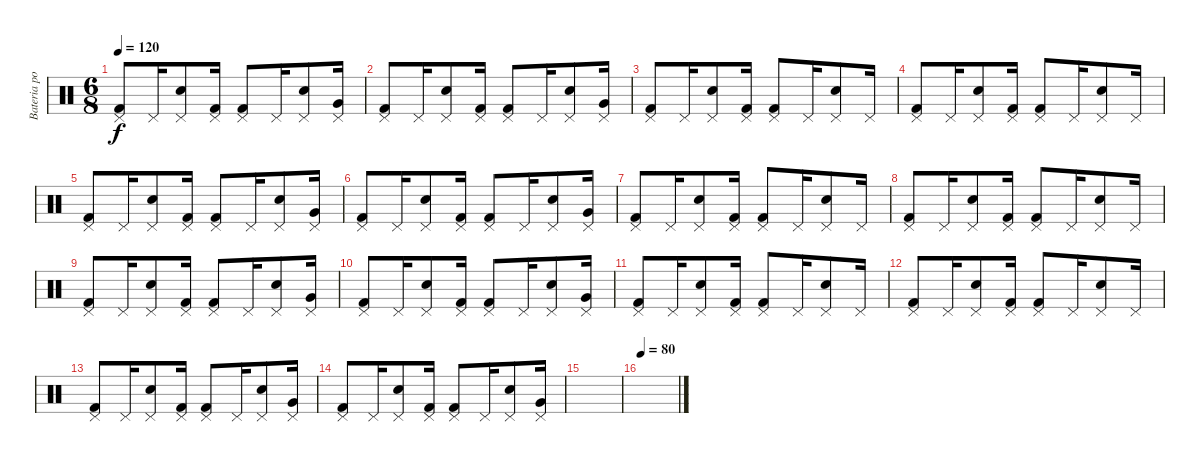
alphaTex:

\track ("Bateria por el viejo del bastón" "Bateria po") {instrument percussion}
\staff {score}
\articulation defaults
\ts (6 8)
\tempo 120
\clef neutral
\ks c
("Pedal Hi-Hat (hit)" "Kick (hit) 2").8{dy f} "Pedal Hi-Hat (hit)".16 ("Pedal Hi-Hat (hit)" "Snare (hit) 2").8 ("Pedal Hi-Hat (hit)" "Kick (hit) 2").16 ("Pedal Hi-Hat (hit)" "Kick (hit) 2").8 "Pedal Hi-Hat (hit)".16 ("Pedal Hi-Hat (hit)" "Snare (hit) 2").8 ("Pedal Hi-Hat (hit)" "Very Low Tom (hit)").16 |
("Pedal Hi-Hat (hit)" "Kick (hit) 2").8 "Pedal Hi-Hat (hit)".16 ("Pedal Hi-Hat (hit)" "Snare (hit) 2").8 ("Pedal Hi-Hat (hit)" "Kick (hit) 2").16 ("Pedal Hi-Hat (hit)" "Kick (hit) 2").8 "Pedal Hi-Hat (hit)".16 ("Pedal Hi-Hat (hit)" "Snare (hit) 2").8 ("Pedal Hi-Hat (hit)" "Very Low Tom (hit)").16 |
("Pedal Hi-Hat (hit)" "Kick (hit) 2").8 "Pedal Hi-Hat (hit)".16 ("Pedal Hi-Hat (hit)" "Snare (hit) 2").8 ("Pedal Hi-Hat (hit)" "Kick (hit) 2").16 ("Pedal Hi-Hat (hit)" "Kick (hit) 2").8 "Pedal Hi-Hat (hit)".16 ("Pedal Hi-Hat (hit)" "Snare (hit) 2").8 "Pedal Hi-Hat (hit)".16 |
("Pedal Hi-Hat (hit)" "Kick (hit) 2").8 "Pedal Hi-Hat (hit)".16 ("Pedal Hi-Hat (hit)" "Snare (hit) 2").8 ("Pedal Hi-Hat (hit)" "Kick (hit) 2").16 ("Pedal Hi-Hat (hit)" "Kick (hit) 2").8 "Pedal Hi-Hat (hit)".16 ("Pedal Hi-Hat (hit)" "Snare (hit) 2").8 "Pedal Hi-Hat (hit)".16 |
("Pedal Hi-Hat (hit)" "Kick (hit) 2").8 "Pedal Hi-Hat (hit)".16 ("Pedal Hi-Hat (hit)" "Snare (hit) 2").8 ("Pedal Hi-Hat (hit)" "Kick (hit) 2").16 ("Pedal Hi-Hat (hit)" "Kick (hit) 2").8 "Pedal Hi-Hat (hit)".16 ("Pedal Hi-Hat (hit)" "Snare (hit) 2").8 ("Pedal Hi-Hat (hit)" "Very Low Tom (hit)").16 |
("Pedal Hi-Hat (hit)" "Kick (hit) 2").8 "Pedal Hi-Hat (hit)".16 ("Pedal Hi-Hat (hit)" "Snare (hit) 2").8 ("Pedal Hi-Hat (hit)" "Kick (hit) 2").16 ("Pedal Hi-Hat (hit)" "Kick (hit) 2").8 "Pedal Hi-Hat (hit)".16 ("Pedal Hi-Hat (hit)" "Snare (hit) 2").8 ("Pedal Hi-Hat (hit)" "Very Low Tom (hit)").16 |
("Pedal Hi-Hat (hit)" "Kick (hit) 2").8 "Pedal Hi-Hat (hit)".16 ("Pedal Hi-Hat (hit)" "Snare (hit) 2").8 ("Pedal Hi-Hat (hit)" "Kick (hit) 2").16 ("Pedal Hi-Hat (hit)" "Kick (hit) 2").8 "Pedal Hi-Hat (hit)".16 ("Pedal Hi-Hat (hit)" "Snare (hit) 2").8 "Pedal Hi-Hat (hit)".16 |
("Pedal Hi-Hat (hit)" "Kick (hit) 2").8 "Pedal Hi-Hat (hit)".16 ("Pedal Hi-Hat (hit)" "Snare (hit) 2").8 ("Pedal Hi-Hat (hit)" "Kick (hit) 2").16 ("Pedal Hi-Hat (hit)" "Kick (hit) 2").8 "Pedal Hi-Hat (hit)".16 ("Pedal Hi-Hat (hit)" "Snare (hit) 2").8 "Pedal Hi-Hat (hit)".16 |
("Pedal Hi-Hat (hit)" "Kick (hit) 2").8 "Pedal Hi-Hat (hit)".16 ("Pedal Hi-Hat (hit)" "Snare (hit) 2").8 ("Pedal Hi-Hat (hit)" "Kick (hit) 2").16 ("Pedal Hi-Hat (hit)" "Kick (hit) 2").8 "Pedal Hi-Hat (hit)".16 ("Pedal Hi-Hat (hit)" "Snare (hit) 2").8 ("Pedal Hi-Hat (hit)" "Very Low Tom (hit)").16 |
("Pedal Hi-Hat (hit)" "Kick (hit) 2").8 "Pedal Hi-Hat (hit)".16 ("Pedal Hi-Hat (hit)" "Snare (hit) 2").8 ("Pedal Hi-Hat (hit)" "Kick (hit) 2").16 ("Pedal Hi-Hat (hit)" "Kick (hit) 2").8 "Pedal Hi-Hat (hit)".16 ("Pedal Hi-Hat (hit)" "Snare (hit) 2").8 ("Pedal Hi-Hat (hit)" "Very Low Tom (hit)").16 |
("Pedal Hi-Hat (hit)" "Kick (hit) 2").8 "Pedal Hi-Hat (hit)".16 ("Pedal Hi-Hat (hit)" "Snare (hit) 2").8 ("Pedal Hi-Hat (hit)" "Kick (hit) 2").16 ("Pedal Hi-Hat (hit)" "Kick (hit) 2").8 "Pedal Hi-Hat (hit)".16 ("Pedal Hi-Hat (hit)" "Snare (hit) 2").8 "Pedal Hi-Hat (hit)".16 |
("Pedal Hi-Hat (hit)" "Kick (hit) 2").8 "Pedal Hi-Hat (hit)".16 ("Pedal Hi-Hat (hit)" "Snare (hit) 2").8 ("Pedal Hi-Hat (hit)" "Kick (hit) 2").16 ("Pedal Hi-Hat (hit)" "Kick (hit) 2").8 "Pedal Hi-Hat (hit)".16 ("Pedal Hi-Hat (hit)" "Snare (hit) 2").8 "Pedal Hi-Hat (hit)".16 |
("Pedal Hi-Hat (hit)" "Kick (hit) 2").8 "Pedal Hi-Hat (hit)".16 ("Pedal Hi-Hat (hit)" "Snare (hit) 2").8 ("Pedal Hi-Hat (hit)" "Kick (hit) 2").16 ("Pedal Hi-Hat (hit)" "Kick (hit) 2").8 "Pedal Hi-Hat (hit)".16 ("Pedal Hi-Hat (hit)" "Snare (hit) 2").8 ("Pedal Hi-Hat (hit)" "Very Low Tom (hit)").16 |
("Pedal Hi-Hat (hit)" "Kick (hit) 2").8 "Pedal Hi-Hat (hit)".16 ("Pedal Hi-Hat (hit)" "Snare (hit) 2").8 ("Pedal Hi-Hat (hit)" "Kick (hit) 2").16 ("Pedal Hi-Hat (hit)" "Kick (hit) 2").8 "Pedal Hi-Hat (hit)".16 ("Pedal Hi-Hat (hit)" "Snare (hit) 2").8 ("Pedal Hi-Hat (hit)" "Very Low Tom (hit)").16 |
|
\tempo 80
